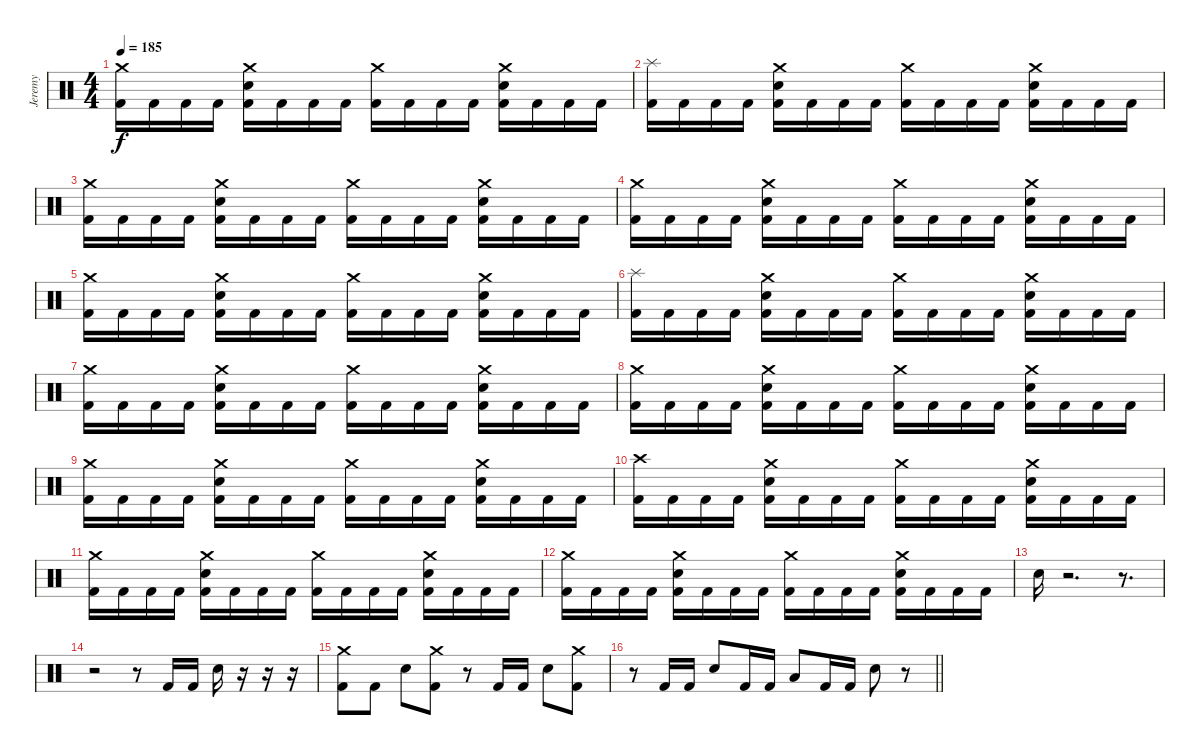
\track ("Jeremy" "Jeremy") {instrument percussion}
\staff {score}
\articulation defaults
\ts (4 4)
\tempo 185
\clef neutral
\ks c
("Crash medium (hit)" "Kick (hit) 2").16{dy f} "Kick (hit) 2".16 "Kick (hit) 2".16 "Kick (hit) 2".16 ("Crash medium (hit)" "Snare (hit) 2" "Kick (hit) 2").16 "Kick (hit) 2".16 "Kick (hit) 2".16 "Kick (hit) 2".16 ("Crash medium (hit)" "Kick (hit) 2").16 "Kick (hit) 2".16 "Kick (hit) 2".16 "Kick (hit) 2".16 ("Crash medium (hit)" "Snare (hit) 2" "Kick (hit) 2").16 "Kick (hit) 2".16 "Kick (hit) 2".16 "Kick (hit) 2".16 |
("Splash (hit)" "Kick (hit) 2").16 "Kick (hit) 2".16 "Kick (hit) 2".16 "Kick (hit) 2".16 ("Crash medium (hit)" "Snare (hit) 2" "Kick (hit) 2").16 "Kick (hit) 2".16 "Kick (hit) 2".16 "Kick (hit) 2".16 ("Crash medium (hit)" "Kick (hit) 2").16 "Kick (hit) 2".16 "Kick (hit) 2".16 "Kick (hit) 2".16 ("Crash medium (hit)" "Snare (hit) 2" "Kick (hit) 2").16 "Kick (hit) 2".16 "Kick (hit) 2".16 "Kick (hit) 2".16 |
("Crash medium (hit)" "Kick (hit) 2").16 "Kick (hit) 2".16 "Kick (hit) 2".16 "Kick (hit) 2".16 ("Crash medium (hit)" "Snare (hit) 2" "Kick (hit) 2").16 "Kick (hit) 2".16 "Kick (hit) 2".16 "Kick (hit) 2".16 ("Crash medium (hit)" "Kick (hit) 2").16 "Kick (hit) 2".16 "Kick (hit) 2".16 "Kick (hit) 2".16 ("Crash medium (hit)" "Snare (hit) 2" "Kick (hit) 2").16 "Kick (hit) 2".16 "Kick (hit) 2".16 "Kick (hit) 2".16 |
("Crash medium (hit)" "Kick (hit) 2").16 "Kick (hit) 2".16 "Kick (hit) 2".16 "Kick (hit) 2".16 ("Crash medium (hit)" "Snare (hit) 2" "Kick (hit) 2").16 "Kick (hit) 2".16 "Kick (hit) 2".16 "Kick (hit) 2".16 ("Crash medium (hit)" "Kick (hit) 2").16 "Kick (hit) 2".16 "Kick (hit) 2".16 "Kick (hit) 2".16 ("Crash medium (hit)" "Snare (hit) 2" "Kick (hit) 2").16 "Kick (hit) 2".16 "Kick (hit) 2".16 "Kick (hit) 2".16 |
("Crash medium (hit)" "Kick (hit) 2").16 "Kick (hit) 2".16 "Kick (hit) 2".16 "Kick (hit) 2".16 ("Crash medium (hit)" "Snare (hit) 2" "Kick (hit) 2").16 "Kick (hit) 2".16 "Kick (hit) 2".16 "Kick (hit) 2".16 ("Crash medium (hit)" "Kick (hit) 2").16 "Kick (hit) 2".16 "Kick (hit) 2".16 "Kick (hit) 2".16 ("Crash medium (hit)" "Snare (hit) 2" "Kick (hit) 2").16 "Kick (hit) 2".16 "Kick (hit) 2".16 "Kick (hit) 2".16 |
("Splash (hit)" "Kick (hit) 2").16 "Kick (hit) 2".16 "Kick (hit) 2".16 "Kick (hit) 2".16 ("Crash medium (hit)" "Snare (hit) 2" "Kick (hit) 2").16 "Kick (hit) 2".16 "Kick (hit) 2".16 "Kick (hit) 2".16 ("Crash medium (hit)" "Kick (hit) 2").16 "Kick (hit) 2".16 "Kick (hit) 2".16 "Kick (hit) 2".16 ("Crash medium (hit)" "Snare (hit) 2" "Kick (hit) 2").16 "Kick (hit) 2".16 "Kick (hit) 2".16 "Kick (hit) 2".16 |
("Crash medium (hit)" "Kick (hit) 2").16 "Kick (hit) 2".16 "Kick (hit) 2".16 "Kick (hit) 2".16 ("Crash medium (hit)" "Snare (hit) 2" "Kick (hit) 2").16 "Kick (hit) 2".16 "Kick (hit) 2".16 "Kick (hit) 2".16 ("Crash medium (hit)" "Kick (hit) 2").16 "Kick (hit) 2".16 "Kick (hit) 2".16 "Kick (hit) 2".16 ("Crash medium (hit)" "Snare (hit) 2" "Kick (hit) 2").16 "Kick (hit) 2".16 "Kick (hit) 2".16 "Kick (hit) 2".16 |
("Crash medium (hit)" "Kick (hit) 2").16 "Kick (hit) 2".16 "Kick (hit) 2".16 "Kick (hit) 2".16 ("Crash medium (hit)" "Snare (hit) 2" "Kick (hit) 2").16 "Kick (hit) 2".16 "Kick (hit) 2".16 "Kick (hit) 2".16 ("Crash medium (hit)" "Kick (hit) 2").16 "Kick (hit) 2".16 "Kick (hit) 2".16 "Kick (hit) 2".16 ("Crash medium (hit)" "Snare (hit) 2" "Kick (hit) 2").16 "Kick (hit) 2".16 "Kick (hit) 2".16 "Kick (hit) 2".16 |
("Crash medium (hit)" "Kick (hit) 2").16 "Kick (hit) 2".16 "Kick (hit) 2".16 "Kick (hit) 2".16 ("Crash medium (hit)" "Snare (hit) 2" "Kick (hit) 2").16 "Kick (hit) 2".16 "Kick (hit) 2".16 "Kick (hit) 2".16 ("Crash medium (hit)" "Kick (hit) 2").16 "Kick (hit) 2".16 "Kick (hit) 2".16 "Kick (hit) 2".16 ("Crash medium (hit)" "Snare (hit) 2" "Kick (hit) 2").16 "Kick (hit) 2".16 "Kick (hit) 2".16 "Kick (hit) 2".16 |
("Crash high (hit)" "Kick (hit) 2").16 "Kick (hit) 2".16 "Kick (hit) 2".16 "Kick (hit) 2".16 ("Crash medium (hit)" "Snare (hit) 2" "Kick (hit) 2").16 "Kick (hit) 2".16 "Kick (hit) 2".16 "Kick (hit) 2".16 ("Crash medium (hit)" "Kick (hit) 2").16 "Kick (hit) 2".16 "Kick (hit) 2".16 "Kick (hit) 2".16 ("Crash medium (hit)" "Snare (hit) 2" "Kick (hit) 2").16 "Kick (hit) 2".16 "Kick (hit) 2".16 "Kick (hit) 2".16 |
("Crash medium (hit)" "Kick (hit) 2").16 "Kick (hit) 2".16 "Kick (hit) 2".16 "Kick (hit) 2".16 ("Crash medium (hit)" "Snare (hit) 2" "Kick (hit) 2").16 "Kick (hit) 2".16 "Kick (hit) 2".16 "Kick (hit) 2".16 ("Crash medium (hit)" "Kick (hit) 2").16 "Kick (hit) 2".16 "Kick (hit) 2".16 "Kick (hit) 2".16 ("Crash medium (hit)" "Snare (hit) 2" "Kick (hit) 2").16 "Kick (hit) 2".16 "Kick (hit) 2".16 "Kick (hit) 2".16 |
("Crash medium (hit)" "Kick (hit) 2").16 "Kick (hit) 2".16 "Kick (hit) 2".16 "Kick (hit) 2".16 ("Crash medium (hit)" "Snare (hit) 2" "Kick (hit) 2").16 "Kick (hit) 2".16 "Kick (hit) 2".16 "Kick (hit) 2".16 ("Crash medium (hit)" "Kick (hit) 2").16 "Kick (hit) 2".16 "Kick (hit) 2".16 "Kick (hit) 2".16 ("Crash medium (hit)" "Snare (hit) 2" "Kick (hit) 2").16 "Kick (hit) 2".16 "Kick (hit) 2".16 "Kick (hit) 2".16 |
"Snare (hit) 2".16 r.2{d} r.8{d} |
r.2 r.8 "Kick (hit) 2".16 "Kick (hit) 2".16 "Snare (hit) 2".16 r.16 r.16 r.16 |
("Crash medium (hit)" "Kick (hit) 2").8 "Kick (hit) 2".8 "Snare (hit) 2".8 ("Crash medium (hit)" "Kick (hit) 2").8 r.8 "Kick (hit) 2".16 "Kick (hit) 2".16 "Snare (hit) 2".8 ("Crash medium (hit)" "Kick (hit) 2").8 |
\barLineRight lightlight
r.8 "Kick (hit) 2".16 "Kick (hit) 2".16 "Snare (hit) 2".8 "Kick (hit) 2".16 "Kick (hit) 2".16 "Low Tom (hit)".8 "Kick (hit) 2".16 "Kick (hit) 2".16 "Snare (hit) 2".8 r.8
